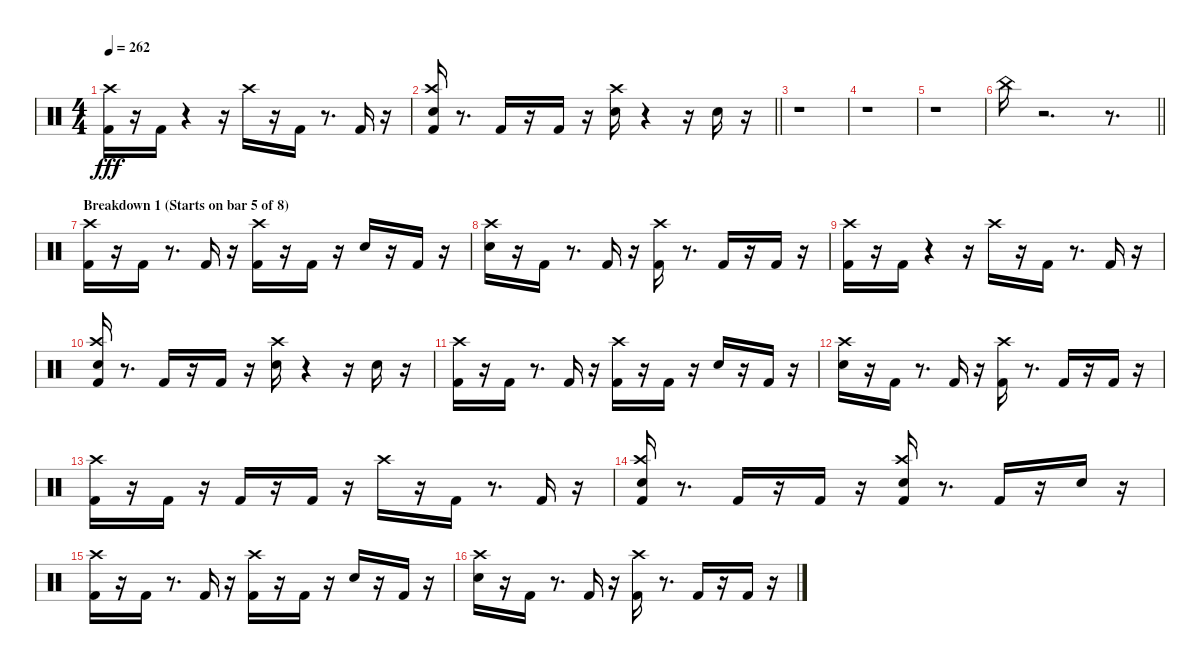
\track "" {instrument percussion}
\staff {score}
\articulation defaults
\ts (4 4)
\tempo 262
\clef neutral
\ks c
("Kick (hit) 2" "Crash high (hit)").16{dy fff} r.16 "Kick (hit) 2".16 r.4 r.16 "Crash high (hit)".16 r.16 "Kick (hit) 2".16 r.8{d} "Kick (hit) 2".16 r.16 |
\barLineRight lightlight
("Kick (hit) 2" "Electric Snare (hit)" "Crash high (hit)").16 r.8{d} "Kick (hit) 2".16 r.16 "Kick (hit) 2".16 r.16 ("Electric Snare (hit)" "Crash high (hit)").16 r.4 r.16 "Snare (hit) 2".16 r.16 |
\section ("" "")
r.1 |
r.1 |
r.1 |
\barLineRight lightlight "China (hit)".16
r.2{d} r.8{d} |
\section ("" "Breakdown 1 (Starts on bar 5 of 8)")
("Kick (hit) 2" "Crash high (hit)").16 r.16 "Kick (hit) 2".16 r.8{d} "Kick (hit) 2".16 r.16 ("Kick (hit) 2" "Crash high (hit)").16 r.16 "Kick (hit) 2".16 r.16 "Electric Snare (hit)".16 r.16 "Kick (hit) 2".16 r.16 |
("Electric Snare (hit)" "Crash high (hit)").16 r.16 "Kick (hit) 2".16 r.8{d} "Kick (hit) 2".16 r.16 ("Kick (hit) 2" "Crash high (hit)").16 r.8{d} "Kick (hit) 2".16 r.16 "Kick (hit) 2".16 r.16 |
("Kick (hit) 2" "Crash high (hit)").16 r.16 "Kick (hit) 2".16 r.4 r.16 "Crash high (hit)".16 r.16 "Kick (hit) 2".16 r.8{d} "Kick (hit) 2".16 r.16 |
("Kick (hit) 2" "Electric Snare (hit)" "Crash high (hit)").16 r.8{d} "Kick (hit) 2".16 r.16 "Kick (hit) 2".16 r.16 ("Electric Snare (hit)" "Crash high (hit)").16 r.4 r.16 "Snare (hit) 2".16 r.16 |
("Kick (hit) 2" "Crash high (hit)").16 r.16 "Kick (hit) 2".16 r.8{d} "Kick (hit) 2".16 r.16 ("Kick (hit) 2" "Crash high (hit)").16 r.16 "Kick (hit) 2".16 r.16 "Electric Snare (hit)".16 r.16 "Kick (hit) 2".16 r.16 |
("Electric Snare (hit)" "Crash high (hit)").16 r.16 "Kick (hit) 2".16 r.8{d} "Kick (hit) 2".16 r.16 ("Kick (hit) 2" "Crash high (hit)").16 r.8{d} "Kick (hit) 2".16 r.16 "Kick (hit) 2".16 r.16 |
("Kick (hit) 2" "Crash high (hit)").16 r.16 "Kick (hit) 2".16 r.16 "Kick (hit) 2".16 r.16 "Kick (hit) 2".16 r.16 "Crash high (hit)".16 r.16 "Kick (hit) 2".16 r.8{d} "Kick (hit) 2".16 r.16 |
("Kick (hit) 2" "Electric Snare (hit)" "Crash high (hit)").16 r.8{d} "Kick (hit) 2".16 r.16 "Kick (hit) 2".16 r.16 ("Kick (hit) 2" "Electric Snare (hit)" "Crash high (hit)").16 r.8{d} "Kick (hit) 2".16 r.16 "Snare (hit) 2".16 r.16 |
("Kick (hit) 2" "Crash high (hit)").16 r.16 "Kick (hit) 2".16 r.8{d} "Kick (hit) 2".16 r.16 ("Kick (hit) 2" "Crash high (hit)").16 r.16 "Kick (hit) 2".16 r.16 "Electric Snare (hit)".16 r.16 "Kick (hit) 2".16 r.16 |
("Electric Snare (hit)" "Crash high (hit)").16 r.16 "Kick (hit) 2".16 r.8{d} "Kick (hit) 2".16 r.16 ("Kick (hit) 2" "Crash high (hit)").16 r.8{d} "Kick (hit) 2".16 r.16 "Kick (hit) 2".16 r.16
